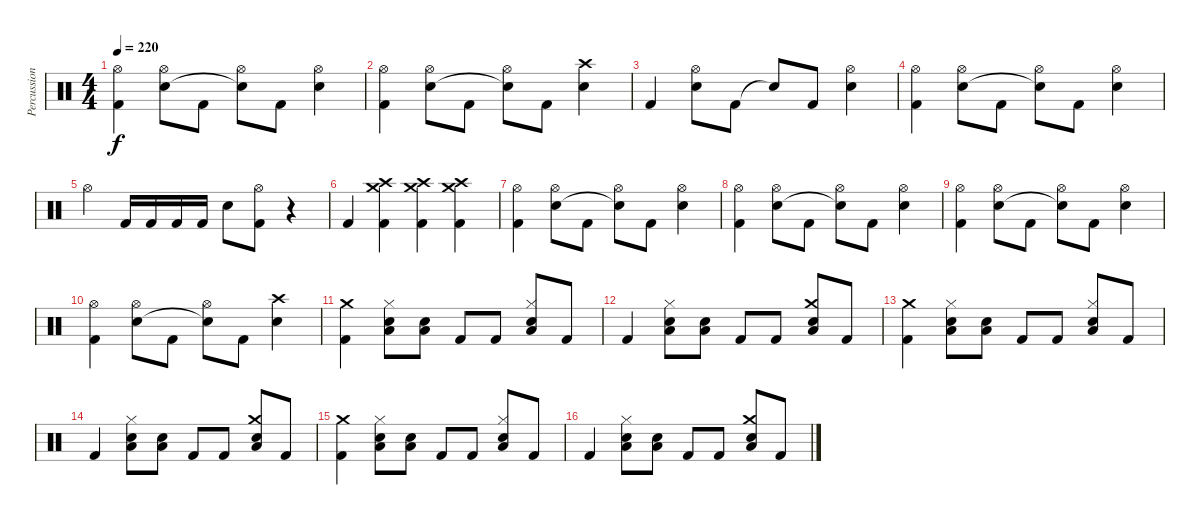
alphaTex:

\track ("Percussion" "Percussion") {instrument percussion}
\staff {score}
\articulation defaults
\ts (4 4)
\tempo 220
\clef neutral
\ks c
("Hi-Hat (open)" "Kick (hit) 2").4{dy f} ("Hi-Hat (open)" "Snare (hit) 2").8 "Kick (hit) 2".8 ("Hi-Hat (open)" "Snare (hit)"{t}).8 "Kick (hit) 2".8 ("Hi-Hat (open)" "Snare (hit) 2").4 |
("Hi-Hat (open)" "Kick (hit) 2").4 ("Hi-Hat (open)" "Snare (hit) 2").8 "Kick (hit) 2".8 ("Hi-Hat (open)" "Snare (hit)"{t}).8 "Kick (hit) 2".8 ("Crash high (hit)" "Snare (hit) 2").4 |
"Kick (hit) 2".4 ("Hi-Hat (open)" "Snare (hit) 2").8 "Kick (hit) 2".8 "Snare (hit)"{t}.8 "Kick (hit) 2".8 ("Hi-Hat (open)" "Snare (hit) 2").4 |
("Hi-Hat (open)" "Kick (hit) 2").4 ("Hi-Hat (open)" "Snare (hit) 2").8 "Kick (hit) 2".8 ("Hi-Hat (open)" "Snare (hit)"{t}).8 "Kick (hit) 2".8 ("Hi-Hat (open)" "Snare (hit) 2").4 |
"Hi-Hat (open)".4 "Kick (hit) 2".16 "Kick (hit) 2".16 "Kick (hit) 2".16 "Kick (hit) 2".16 "Snare (hit) 2".8 ("Hi-Hat (open)" "Kick (hit) 2").8 r.4 |
"Kick (hit) 2".4 ("Crash high (hit)" "Crash medium (hit)" "Kick (hit) 2").4 ("Crash high (hit)" "Crash medium (hit)" "Kick (hit) 2").4 ("Crash high (hit)" "Crash medium (hit)" "Kick (hit) 2").4 |
("Hi-Hat (open)" "Kick (hit) 2").4 ("Hi-Hat (open)" "Snare (hit) 2").8 "Kick (hit) 2".8 ("Hi-Hat (open)" "Snare (hit)"{t}).8 "Kick (hit) 2".8 ("Hi-Hat (open)" "Snare (hit) 2").4 |
("Hi-Hat (open)" "Kick (hit) 2").4 ("Hi-Hat (open)" "Snare (hit) 2").8 "Kick (hit) 2".8 ("Hi-Hat (open)" "Snare (hit)"{t}).8 "Kick (hit) 2".8 ("Hi-Hat (open)" "Snare (hit) 2").4 |
("Hi-Hat (open)" "Kick (hit) 2").4 ("Hi-Hat (open)" "Snare (hit) 2").8 "Kick (hit) 2".8 ("Hi-Hat (open)" "Snare (hit)"{t}).8 "Kick (hit) 2".8 ("Hi-Hat (open)" "Snare (hit) 2").4 |
("Hi-Hat (open)" "Kick (hit) 2").4 ("Hi-Hat (open)" "Snare (hit) 2").8 "Kick (hit) 2".8 ("Hi-Hat (open)" "Snare (hit)"{t}).8 "Kick (hit) 2".8 ("Crash high (hit)" "Snare (hit) 2").4 |
("Crash medium (hit)" "Kick (hit) 2").4 ("Hi-Hat (closed)" "Low Tom (hit)" "Snare (hit) 2").8 ("Low Tom (hit)" "Snare (hit) 2").8 "Kick (hit) 2".8 "Kick (hit) 2".8 ("Hi-Hat (closed)" "Low Tom (hit)" "Snare (hit) 2").8 "Kick (hit) 2".8 |
"Kick (hit) 2".4 ("Hi-Hat (closed)" "Low Tom (hit)" "Snare (hit) 2").8 ("Low Tom (hit)" "Snare (hit) 2").8 "Kick (hit) 2".8 "Kick (hit) 2".8 ("Crash medium (hit)" "Low Tom (hit)" "Snare (hit) 2").8 "Kick (hit) 2".8 |
("Crash medium (hit)" "Kick (hit) 2").4 ("Hi-Hat (closed)" "Low Tom (hit)" "Snare (hit) 2").8 ("Low Tom (hit)" "Snare (hit) 2").8 "Kick (hit) 2".8 "Kick (hit) 2".8 ("Hi-Hat (closed)" "Low Tom (hit)" "Snare (hit) 2").8 "Kick (hit) 2".8 |
"Kick (hit) 2".4 ("Hi-Hat (closed)" "Low Tom (hit)" "Snare (hit) 2").8 ("Low Tom (hit)" "Snare (hit) 2").8 "Kick (hit) 2".8 "Kick (hit) 2".8 ("Crash medium (hit)" "Low Tom (hit)" "Snare (hit) 2").8 "Kick (hit) 2".8 |
("Crash medium (hit)" "Kick (hit) 2").4 ("Hi-Hat (closed)" "Low Tom (hit)" "Snare (hit) 2").8 ("Low Tom (hit)" "Snare (hit) 2").8 "Kick (hit) 2".8 "Kick (hit) 2".8 ("Hi-Hat (closed)" "Low Tom (hit)" "Snare (hit) 2").8 "Kick (hit) 2".8 |
"Kick (hit) 2".4 ("Hi-Hat (closed)" "Low Tom (hit)" "Snare (hit) 2").8 ("Low Tom (hit)" "Snare (hit) 2").8 "Kick (hit) 2".8 "Kick (hit) 2".8 ("Crash medium (hit)" "Low Tom (hit)" "Snare (hit) 2").8 "Kick (hit) 2".8
